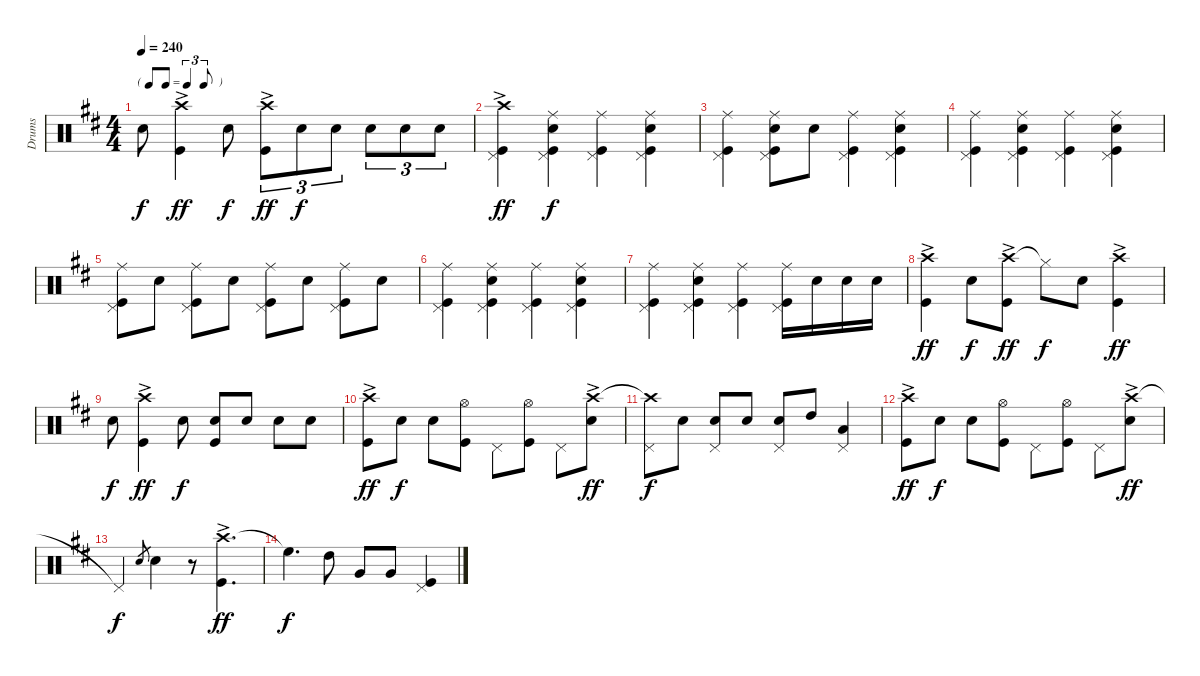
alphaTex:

\track ("Drums" "Drums") {instrument percussion}
\staff {score}
\articulation defaults
\ts (4 4)
\tf triplet8th
\tempo 240
\clef neutral
\ks d "Snare (hit) 2".8{dy f}
("Crash high (hit)"{ac} "Kick (hit)").4{dy ff} "Snare (hit) 2".8{dy f} ("Crash high (hit)"{ac} "Kick (hit)").8{tu (3 2) dy ff} "Snare (hit) 2".8{tu (3 2) dy f} "Snare (hit) 2".8{tu (3 2)} "Snare (hit) 2".8{tu (3 2)} "Snare (hit) 2".8{tu (3 2)} "Snare (hit) 2".8{tu (3 2)} |
("Crash high (hit)"{ac} "Kick (hit)" "Pedal Hi-Hat (hit)").4{dy ff} ("Ride (middle)" "Kick (hit)" "Pedal Hi-Hat (hit)" "Snare (hit) 2").4{dy f} ("Ride (middle)" "Kick (hit)" "Pedal Hi-Hat (hit)").4 ("Ride (middle)" "Kick (hit)" "Pedal Hi-Hat (hit)" "Snare (hit) 2").4 |
("Ride (middle)" "Kick (hit)" "Pedal Hi-Hat (hit)").4 ("Ride (middle)" "Snare (hit) 2" "Kick (hit)" "Pedal Hi-Hat (hit)").8 "Snare (hit) 2".8 ("Ride (middle)" "Kick (hit)" "Pedal Hi-Hat (hit)").4 ("Ride (middle)" "Snare (hit) 2" "Kick (hit)" "Pedal Hi-Hat (hit)").4 |
("Ride (middle)" "Kick (hit)" "Pedal Hi-Hat (hit)").4 ("Ride (middle)" "Kick (hit)" "Pedal Hi-Hat (hit)" "Snare (hit) 2").4 ("Ride (middle)" "Kick (hit)" "Pedal Hi-Hat (hit)").4 ("Ride (middle)" "Kick (hit)" "Pedal Hi-Hat (hit)" "Snare (hit) 2").4 |
("Ride (middle)" "Kick (hit)" "Pedal Hi-Hat (hit)").8 "Snare (hit) 2".8 ("Ride (middle)" "Kick (hit)" "Pedal Hi-Hat (hit)").8 "Snare (hit) 2".8 ("Ride (middle)" "Kick (hit)" "Pedal Hi-Hat (hit)").8 "Snare (hit) 2".8 ("Ride (middle)" "Kick (hit)" "Pedal Hi-Hat (hit)").8 "Snare (hit) 2".8 |
("Ride (middle)" "Kick (hit)" "Pedal Hi-Hat (hit)").4 ("Ride (middle)" "Kick (hit)" "Pedal Hi-Hat (hit)" "Snare (hit) 2").4 ("Ride (middle)" "Kick (hit)" "Pedal Hi-Hat (hit)").4 ("Ride (middle)" "Kick (hit)" "Pedal Hi-Hat (hit)" "Snare (hit) 2").4 |
("Ride (middle)" "Kick (hit)" "Pedal Hi-Hat (hit)").4 ("Ride (middle)" "Kick (hit)" "Pedal Hi-Hat (hit)" "Snare (hit) 2").4 ("Ride (middle)" "Kick (hit)" "Pedal Hi-Hat (hit)").4 ("Ride (middle)" "Kick (hit)" "Pedal Hi-Hat (hit)").16 "Snare (hit) 2".16 "Snare (hit) 2".16 "Snare (hit) 2".16 |
("Crash high (hit)"{ac} "Kick (hit)").4{dy ff} "Snare (hit) 2".8{dy f} ("Crash high (hit)"{ac} "Kick (hit)").8{dy ff} "Hi-Hat (closed)"{t}.8{dy f} "Snare (hit) 2".8 ("Crash high (hit)"{ac} "Kick (hit)").4{dy ff} |
"Snare (hit) 2".8{dy f} ("Crash high (hit)"{ac} "Kick (hit)").4{dy ff} "Snare (hit) 2".8{dy f} ("Snare (hit) 2" "Kick (hit)").8 "Snare (hit) 2".8 "Snare (hit) 2".8 "Snare (hit) 2".8 |
("Crash high (hit)"{ac} "Kick (hit)").8{dy ff} "Snare (hit) 2".8{dy f} "Snare (hit) 2".8 ("Hi-Hat (open)" "Kick (hit)").8 "Pedal Hi-Hat (hit)".8 ("Hi-Hat (open)" "Kick (hit)").8 "Pedal Hi-Hat (hit)".8 ("Crash high (hit)"{ac} "Snare (hit) 2").8{dy ff} |
("Crash high (hit)"{t} "Pedal Hi-Hat (hit)").8{dy f} "Snare (hit) 2".8 ("Snare (hit) 2" "Pedal Hi-Hat (hit)").8 "Snare (hit) 2".8 ("Snare (hit) 2" "Pedal Hi-Hat (hit)").8 "High Tom (hit)".8 ("Low Tom (hit)" "Pedal Hi-Hat (hit)").4 |
("Crash high (hit)"{ac} "Kick (hit)").8{dy ff} "Snare (hit) 2".8{dy f} "Snare (hit) 2".8 ("Hi-Hat (open)" "Kick (hit)").8 "Pedal Hi-Hat (hit)".8 ("Hi-Hat (open)" "Kick (hit)").8 "Pedal Hi-Hat (hit)".8 ("Crash high (hit)"{ac} "Snare (hit) 2").8{dy ff} |
"Pedal Hi-Hat (hit)"{t}.4{dy f} "Snare (hit) 2".8{gr} "Snare (hit) 2".4 r.8 ("Crash high (hit)"{ac} "Kick (hit)").4{d dy ff} |
"High Floor Tom (hit)"{t}.4{d dy f} "High Tom (hit)".8 "Very Low Tom (hit)".8 "Very Low Tom (hit)".8 ("Kick (hit)" "Pedal Hi-Hat (hit)").4
